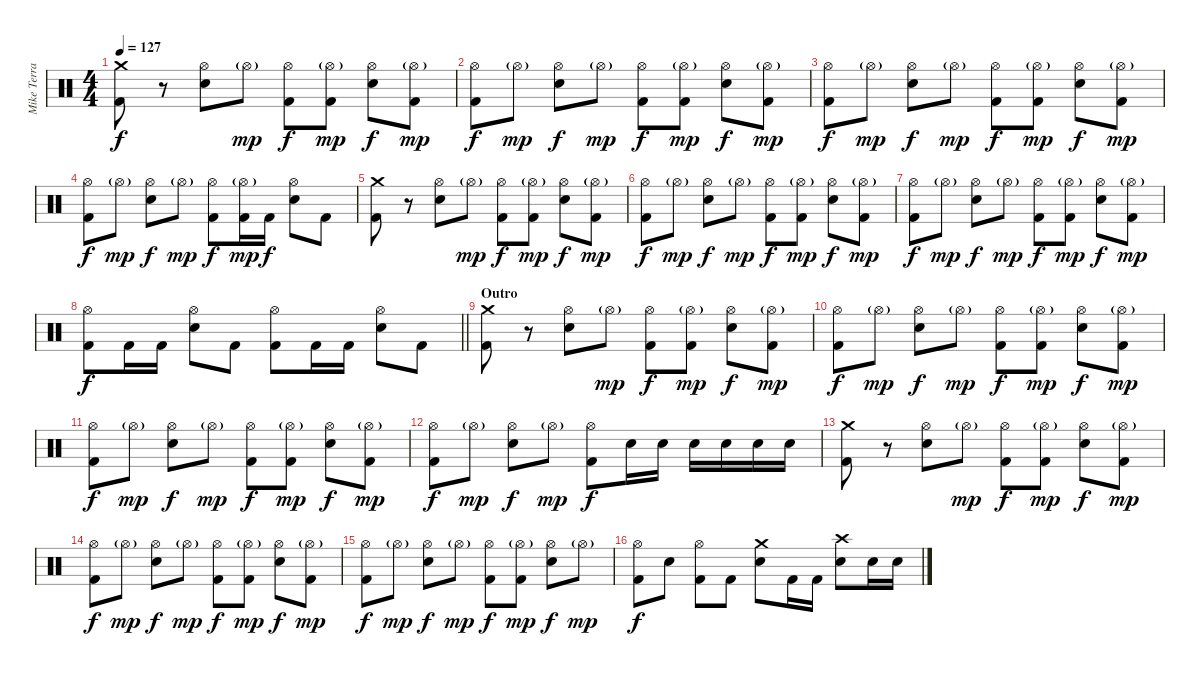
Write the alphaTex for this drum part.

\track ("Mike Terrana" "Mike Terra") {instrument percussion}
\staff {score}
\articulation defaults
\ts (4 4)
\tempo 127
\clef neutral
\ks c
("Crash medium (hit)" "Kick (hit) 2").8{dy f} r.8 ("Hi-Hat (open)" "Snare (hit) 2").8 "Hi-Hat (open)"{g}.8{dy mp} ("Hi-Hat (open)" "Kick (hit) 2").8{dy f} ("Hi-Hat (open)"{g} "Kick (hit) 2").8{dy mp} ("Hi-Hat (open)" "Snare (hit) 2").8{dy f} ("Hi-Hat (open)"{g} "Kick (hit) 2").8{dy mp} |
("Hi-Hat (open)" "Kick (hit) 2").8{dy f} "Hi-Hat (open)"{g}.8{dy mp} ("Hi-Hat (open)" "Snare (hit) 2").8{dy f} "Hi-Hat (open)"{g}.8{dy mp} ("Hi-Hat (open)" "Kick (hit) 2").8{dy f} ("Hi-Hat (open)"{g} "Kick (hit) 2").8{dy mp} ("Hi-Hat (open)" "Snare (hit) 2").8{dy f} ("Hi-Hat (open)"{g} "Kick (hit) 2").8{dy mp} |
("Hi-Hat (open)" "Kick (hit) 2").8{dy f} "Hi-Hat (open)"{g}.8{dy mp} ("Hi-Hat (open)" "Snare (hit) 2").8{dy f} "Hi-Hat (open)"{g}.8{dy mp} ("Hi-Hat (open)" "Kick (hit) 2").8{dy f} ("Hi-Hat (open)"{g} "Kick (hit) 2").8{dy mp} ("Hi-Hat (open)" "Snare (hit) 2").8{dy f} ("Hi-Hat (open)"{g} "Kick (hit) 2").8{dy mp} |
("Hi-Hat (open)" "Kick (hit) 2").8{dy f} "Hi-Hat (open)"{g}.8{dy mp} ("Hi-Hat (open)" "Snare (hit) 2").8{dy f} "Hi-Hat (open)"{g}.8{dy mp} ("Hi-Hat (open)" "Kick (hit) 2").8{dy f} ("Hi-Hat (open)"{g} "Kick (hit) 2").16{dy mp} "Kick (hit) 2".16{dy f} ("Hi-Hat (open)" "Snare (hit) 2").8 "Kick (hit) 2".8 |
("Crash medium (hit)" "Kick (hit) 2").8 r.8 ("Hi-Hat (open)" "Snare (hit) 2").8 "Hi-Hat (open)"{g}.8{dy mp} ("Hi-Hat (open)" "Kick (hit) 2").8{dy f} ("Hi-Hat (open)"{g} "Kick (hit) 2").8{dy mp} ("Hi-Hat (open)" "Snare (hit) 2").8{dy f} ("Hi-Hat (open)"{g} "Kick (hit) 2").8{dy mp} |
("Hi-Hat (open)" "Kick (hit) 2").8{dy f} "Hi-Hat (open)"{g}.8{dy mp} ("Hi-Hat (open)" "Snare (hit) 2").8{dy f} "Hi-Hat (open)"{g}.8{dy mp} ("Hi-Hat (open)" "Kick (hit) 2").8{dy f} ("Hi-Hat (open)"{g} "Kick (hit) 2").8{dy mp} ("Hi-Hat (open)" "Snare (hit) 2").8{dy f} ("Hi-Hat (open)"{g} "Kick (hit) 2").8{dy mp} |
("Hi-Hat (open)" "Kick (hit) 2").8{dy f} "Hi-Hat (open)"{g}.8{dy mp} ("Hi-Hat (open)" "Snare (hit) 2").8{dy f} "Hi-Hat (open)"{g}.8{dy mp} ("Hi-Hat (open)" "Kick (hit) 2").8{dy f} ("Hi-Hat (open)"{g} "Kick (hit) 2").8{dy mp} ("Hi-Hat (open)" "Snare (hit) 2").8{dy f} ("Hi-Hat (open)"{g} "Kick (hit) 2").8{dy mp} |
\barLineRight lightlight
("Hi-Hat (open)" "Kick (hit) 2").8{dy f} "Kick (hit) 2".16 "Kick (hit) 2".16 ("Hi-Hat (open)" "Snare (hit) 2").8 "Kick (hit) 2".8 ("Hi-Hat (open)" "Kick (hit) 2").8 "Kick (hit) 2".16 "Kick (hit) 2".16 ("Hi-Hat (open)" "Snare (hit) 2").8 "Kick (hit) 2".8 |
\section ("" "Outro")
("Crash medium (hit)" "Kick (hit) 2").8 r.8 ("Hi-Hat (open)" "Snare (hit) 2").8 "Hi-Hat (open)"{g}.8{dy mp} ("Hi-Hat (open)" "Kick (hit) 2").8{dy f} ("Hi-Hat (open)"{g} "Kick (hit) 2").8{dy mp} ("Hi-Hat (open)" "Snare (hit) 2").8{dy f} ("Hi-Hat (open)"{g} "Kick (hit) 2").8{dy mp} |
("Hi-Hat (open)" "Kick (hit) 2").8{dy f} "Hi-Hat (open)"{g}.8{dy mp} ("Hi-Hat (open)" "Snare (hit) 2").8{dy f} "Hi-Hat (open)"{g}.8{dy mp} ("Hi-Hat (open)" "Kick (hit) 2").8{dy f} ("Hi-Hat (open)"{g} "Kick (hit) 2").8{dy mp} ("Hi-Hat (open)" "Snare (hit) 2").8{dy f} ("Hi-Hat (open)"{g} "Kick (hit) 2").8{dy mp} |
("Hi-Hat (open)" "Kick (hit) 2").8{dy f} "Hi-Hat (open)"{g}.8{dy mp} ("Hi-Hat (open)" "Snare (hit) 2").8{dy f} "Hi-Hat (open)"{g}.8{dy mp} ("Hi-Hat (open)" "Kick (hit) 2").8{dy f} ("Hi-Hat (open)"{g} "Kick (hit) 2").8{dy mp} ("Hi-Hat (open)" "Snare (hit) 2").8{dy f} ("Hi-Hat (open)"{g} "Kick (hit) 2").8{dy mp} |
("Hi-Hat (open)" "Kick (hit) 2").8{dy f} "Hi-Hat (open)"{g}.8{dy mp} ("Hi-Hat (open)" "Snare (hit) 2").8{dy f} "Hi-Hat (open)"{g}.8{dy mp} ("Hi-Hat (open)" "Kick (hit) 2").8{dy f} "Snare (hit) 2".16 "Snare (hit) 2".16 "Snare (hit) 2".16 "Snare (hit) 2".16 "Snare (hit) 2".16 "Snare (hit) 2".16 |
("Crash medium (hit)" "Kick (hit) 2").8 r.8 ("Hi-Hat (open)" "Snare (hit) 2").8 "Hi-Hat (open)"{g}.8{dy mp} ("Hi-Hat (open)" "Kick (hit) 2").8{dy f} ("Hi-Hat (open)"{g} "Kick (hit) 2").8{dy mp} ("Hi-Hat (open)" "Snare (hit) 2").8{dy f} ("Hi-Hat (open)"{g} "Kick (hit) 2").8{dy mp} |
("Hi-Hat (open)" "Kick (hit) 2").8{dy f} "Hi-Hat (open)"{g}.8{dy mp} ("Hi-Hat (open)" "Snare (hit) 2").8{dy f} "Hi-Hat (open)"{g}.8{dy mp} ("Hi-Hat (open)" "Kick (hit) 2").8{dy f} ("Hi-Hat (open)"{g} "Kick (hit) 2").8{dy mp} ("Hi-Hat (open)" "Snare (hit) 2").8{dy f} ("Hi-Hat (open)"{g} "Kick (hit) 2").8{dy mp} |
("Hi-Hat (open)" "Kick (hit) 2").8{dy f} "Hi-Hat (open)"{g}.8{dy mp} ("Hi-Hat (open)" "Snare (hit) 2").8{dy f} "Hi-Hat (open)"{g}.8{dy mp} ("Hi-Hat (open)" "Kick (hit) 2").8{dy f} ("Hi-Hat (open)"{g} "Kick (hit) 2").8{dy mp} ("Hi-Hat (open)" "Snare (hit) 2").8{dy f} "Hi-Hat (open)"{g}.8{dy mp} |
("Hi-Hat (open)" "Kick (hit) 2").8{dy f} "Snare (hit) 2".8 ("Hi-Hat (open)" "Kick (hit) 2").8 "Kick (hit) 2".8 ("Crash medium (hit)" "Snare (hit) 2").8 "Kick (hit) 2".16 "Kick (hit) 2".16 ("Crash high (hit)" "Snare (hit) 2").8 "Snare (hit) 2".16 "Snare (hit) 2".16
